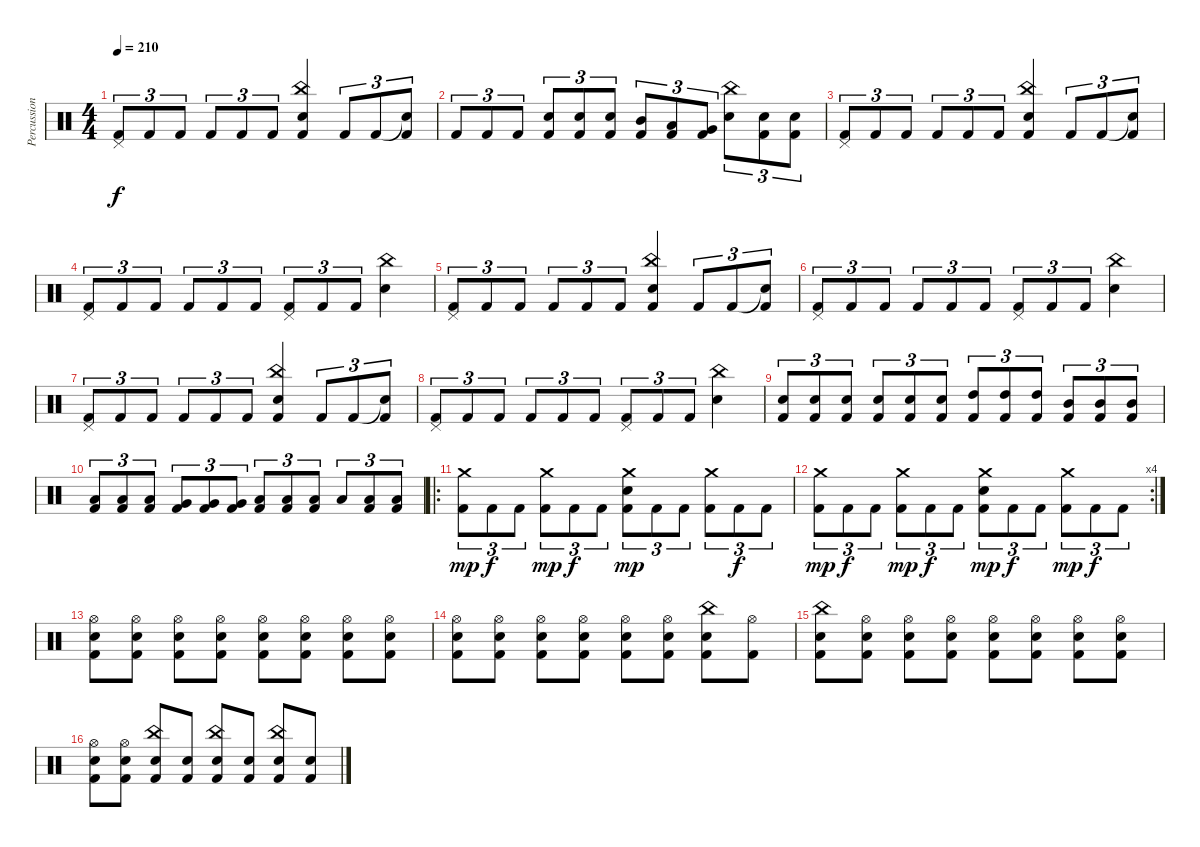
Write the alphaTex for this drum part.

\track ("Percussion" "Percussion") {instrument percussion}
\staff {score}
\articulation defaults
\ts (4 4)
\tempo 210
\clef neutral
\ks c
("Pedal Hi-Hat (hit)" "Kick (hit) 2").8{tu (3 2) dy f} "Kick (hit) 2".8{tu (3 2)} "Kick (hit) 2".8{tu (3 2)} "Kick (hit) 2".8{tu (3 2)} "Kick (hit) 2".8{tu (3 2)} "Kick (hit) 2".8{tu (3 2)} ("China (hit)" "Electric Snare (hit)" "Kick (hit) 2").4 "Kick (hit) 2".8{tu (3 2)} "Kick (hit) 2".8{tu (3 2)} ("Snare (hit)"{t} "Kick (hit) 2").8{tu (3 2)} |
"Kick (hit) 2".8{tu (3 2)} "Kick (hit) 2".8{tu (3 2)} "Kick (hit) 2".8{tu (3 2)} ("Electric Snare (hit)" "Kick (hit) 2").8{tu (3 2)} ("Electric Snare (hit)" "Kick (hit) 2").8{tu (3 2)} ("Electric Snare (hit)" "Kick (hit) 2").8{tu (3 2)} ("Mid Tom (hit)" "Kick (hit) 2").8{tu (3 2)} ("Low Tom (hit)" "Kick (hit) 2").8{tu (3 2)} ("Very Low Tom (hit)" "Kick (hit) 2").8{tu (3 2)} ("China (hit)" "Electric Snare (hit)").8{tu (3 2)} ("Electric Snare (hit)" "Kick (hit) 2").8{tu (3 2)} ("Electric Snare (hit)" "Kick (hit) 2").8{tu (3 2)} |
("Pedal Hi-Hat (hit)" "Kick (hit) 2").8{tu (3 2)} "Kick (hit) 2".8{tu (3 2)} "Kick (hit) 2".8{tu (3 2)} "Kick (hit) 2".8{tu (3 2)} "Kick (hit) 2".8{tu (3 2)} "Kick (hit) 2".8{tu (3 2)} ("China (hit)" "Electric Snare (hit)" "Kick (hit) 2").4 "Kick (hit) 2".8{tu (3 2)} "Kick (hit) 2".8{tu (3 2)} ("Snare (hit)"{t} "Kick (hit) 2").8{tu (3 2)} |
("Pedal Hi-Hat (hit)" "Kick (hit) 2").8{tu (3 2)} "Kick (hit) 2".8{tu (3 2)} "Kick (hit) 2".8{tu (3 2)} "Kick (hit) 2".8{tu (3 2)} "Kick (hit) 2".8{tu (3 2)} "Kick (hit) 2".8{tu (3 2)} ("Pedal Hi-Hat (hit)" "Kick (hit) 2").8{tu (3 2)} "Kick (hit) 2".8{tu (3 2)} "Kick (hit) 2".8{tu (3 2)} ("China (hit)" "Electric Snare (hit)").4 |
("Pedal Hi-Hat (hit)" "Kick (hit) 2").8{tu (3 2)} "Kick (hit) 2".8{tu (3 2)} "Kick (hit) 2".8{tu (3 2)} "Kick (hit) 2".8{tu (3 2)} "Kick (hit) 2".8{tu (3 2)} "Kick (hit) 2".8{tu (3 2)} ("China (hit)" "Electric Snare (hit)" "Kick (hit) 2").4 "Kick (hit) 2".8{tu (3 2)} "Kick (hit) 2".8{tu (3 2)} ("Snare (hit)"{t} "Kick (hit) 2").8{tu (3 2)} |
("Pedal Hi-Hat (hit)" "Kick (hit) 2").8{tu (3 2)} "Kick (hit) 2".8{tu (3 2)} "Kick (hit) 2".8{tu (3 2)} "Kick (hit) 2".8{tu (3 2)} "Kick (hit) 2".8{tu (3 2)} "Kick (hit) 2".8{tu (3 2)} ("Pedal Hi-Hat (hit)" "Kick (hit) 2").8{tu (3 2)} "Kick (hit) 2".8{tu (3 2)} "Kick (hit) 2".8{tu (3 2)} ("China (hit)" "Electric Snare (hit)").4 |
("Pedal Hi-Hat (hit)" "Kick (hit) 2").8{tu (3 2)} "Kick (hit) 2".8{tu (3 2)} "Kick (hit) 2".8{tu (3 2)} "Kick (hit) 2".8{tu (3 2)} "Kick (hit) 2".8{tu (3 2)} "Kick (hit) 2".8{tu (3 2)} ("China (hit)" "Electric Snare (hit)" "Kick (hit) 2").4 "Kick (hit) 2".8{tu (3 2)} "Kick (hit) 2".8{tu (3 2)} ("Snare (hit)"{t} "Kick (hit) 2").8{tu (3 2)} |
("Pedal Hi-Hat (hit)" "Kick (hit) 2").8{tu (3 2)} "Kick (hit) 2".8{tu (3 2)} "Kick (hit) 2".8{tu (3 2)} "Kick (hit) 2".8{tu (3 2)} "Kick (hit) 2".8{tu (3 2)} "Kick (hit) 2".8{tu (3 2)} ("Pedal Hi-Hat (hit)" "Kick (hit) 2").8{tu (3 2)} "Kick (hit) 2".8{tu (3 2)} "Kick (hit) 2".8{tu (3 2)} ("China (hit)" "Electric Snare (hit)").4 |
("Electric Snare (hit)" "Kick (hit) 2").8{tu (3 2)} ("Electric Snare (hit)" "Kick (hit) 2").8{tu (3 2)} ("Electric Snare (hit)" "Kick (hit) 2").8{tu (3 2)} ("Electric Snare (hit)" "Kick (hit) 2").8{tu (3 2)} ("Electric Snare (hit)" "Kick (hit) 2").8{tu (3 2)} ("Electric Snare (hit)" "Kick (hit) 2").8{tu (3 2)} ("High Tom (hit)" "Kick (hit) 2").8{tu (3 2)} ("High Tom (hit)" "Kick (hit) 2").8{tu (3 2)} ("High Tom (hit)" "Kick (hit) 2").8{tu (3 2)} ("Mid Tom (hit)" "Kick (hit) 2").8{tu (3 2)} ("Mid Tom (hit)" "Kick (hit) 2").8{tu (3 2)} ("Mid Tom (hit)" "Kick (hit) 2").8{tu (3 2)} |
("Low Tom (hit)" "Kick (hit) 2").8{tu (3 2)} ("Low Tom (hit)" "Kick (hit) 2").8{tu (3 2)} ("Low Tom (hit)" "Kick (hit) 2").8{tu (3 2)} ("Very Low Tom (hit)" "Kick (hit) 2").8{tu (3 2)} ("Very Low Tom (hit)" "Kick (hit) 2").8{tu (3 2)} ("Very Low Tom (hit)" "Kick (hit) 2").8{tu (3 2)} ("Low Floor Tom (hit)" "Kick (hit) 2").8{tu (3 2)} ("Low Floor Tom (hit)" "Kick (hit) 2").8{tu (3 2)} ("Low Floor Tom (hit)" "Kick (hit) 2").8{tu (3 2)} "Low Floor Tom (hit)".8{tu (3 2)} ("Low Floor Tom (hit)" "Kick (hit) 2").8{tu (3 2)} ("Low Floor Tom (hit)" "Kick (hit) 2").8{tu (3 2)} |
\ro
("Crash medium (hit)" "Kick (hit) 2").8{tu (3 2) dy mp} "Kick (hit) 2".8{tu (3 2) dy f} "Kick (hit) 2".8{tu (3 2)} ("Crash medium (hit)" "Kick (hit) 2").8{tu (3 2) dy mp} "Kick (hit) 2".8{tu (3 2) dy f} "Kick (hit) 2".8{tu (3 2)} ("Crash medium (hit)" "Electric Snare (hit)" "Kick (hit) 2").8{tu (3 2) dy mp} "Kick (hit) 2".8{tu (3 2)} "Kick (hit) 2".8{tu (3 2)} ("Crash medium (hit)" "Kick (hit) 2").8{tu (3 2)} "Kick (hit) 2".8{tu (3 2) dy f} "Kick (hit) 2".8{tu (3 2)} |
\rc 4
("Crash medium (hit)" "Kick (hit) 2").8{tu (3 2) dy mp} "Kick (hit) 2".8{tu (3 2) dy f} "Kick (hit) 2".8{tu (3 2)} ("Crash medium (hit)" "Kick (hit) 2").8{tu (3 2) dy mp} "Kick (hit) 2".8{tu (3 2) dy f} "Kick (hit) 2".8{tu (3 2)} ("Crash medium (hit)" "Electric Snare (hit)" "Kick (hit) 2").8{tu (3 2) dy mp} "Kick (hit) 2".8{tu (3 2) dy f} "Kick (hit) 2".8{tu (3 2)} ("Crash medium (hit)" "Kick (hit) 2").8{tu (3 2) dy mp} "Kick (hit) 2".8{tu (3 2) dy f} "Kick (hit) 2".8{tu (3 2)} |
("Hi-Hat (open)" "Electric Snare (hit)" "Kick (hit) 2").8 ("Hi-Hat (open)" "Electric Snare (hit)" "Kick (hit) 2").8 ("Hi-Hat (open)" "Electric Snare (hit)" "Kick (hit) 2").8 ("Hi-Hat (open)" "Electric Snare (hit)" "Kick (hit) 2").8 ("Hi-Hat (open)" "Electric Snare (hit)" "Kick (hit) 2").8 ("Hi-Hat (open)" "Electric Snare (hit)" "Kick (hit) 2").8 ("Hi-Hat (open)" "Electric Snare (hit)" "Kick (hit) 2").8 ("Hi-Hat (open)" "Electric Snare (hit)" "Kick (hit) 2").8 |
("Hi-Hat (open)" "Electric Snare (hit)" "Kick (hit) 2").8 ("Hi-Hat (open)" "Electric Snare (hit)" "Kick (hit) 2").8 ("Hi-Hat (open)" "Electric Snare (hit)" "Kick (hit) 2").8 ("Hi-Hat (open)" "Electric Snare (hit)" "Kick (hit) 2").8 ("Hi-Hat (open)" "Electric Snare (hit)" "Kick (hit) 2").8 ("Hi-Hat (open)" "Electric Snare (hit)" "Kick (hit) 2").8 ("China (hit)" "Electric Snare (hit)" "Kick (hit) 2").8 ("Hi-Hat (open)" "Kick (hit) 2").8 |
("China (hit)" "Electric Snare (hit)" "Kick (hit) 2").8 ("Hi-Hat (open)" "Electric Snare (hit)" "Kick (hit) 2").8 ("Hi-Hat (open)" "Electric Snare (hit)" "Kick (hit) 2").8 ("Hi-Hat (open)" "Electric Snare (hit)" "Kick (hit) 2").8 ("Hi-Hat (open)" "Electric Snare (hit)" "Kick (hit) 2").8 ("Hi-Hat (open)" "Electric Snare (hit)" "Kick (hit) 2").8 ("Hi-Hat (open)" "Electric Snare (hit)" "Kick (hit) 2").8 ("Hi-Hat (open)" "Electric Snare (hit)" "Kick (hit) 2").8 |
("Hi-Hat (open)" "Electric Snare (hit)" "Kick (hit) 2").8 ("Hi-Hat (open)" "Electric Snare (hit)" "Kick (hit) 2").8 ("China (hit)" "Electric Snare (hit)" "Kick (hit) 2").8 ("Electric Snare (hit)" "Kick (hit) 2").8 ("China (hit)" "Electric Snare (hit)" "Kick (hit) 2").8 ("Electric Snare (hit)" "Kick (hit) 2").8 ("China (hit)" "Electric Snare (hit)" "Kick (hit) 2").8 ("Electric Snare (hit)" "Kick (hit) 2").8
